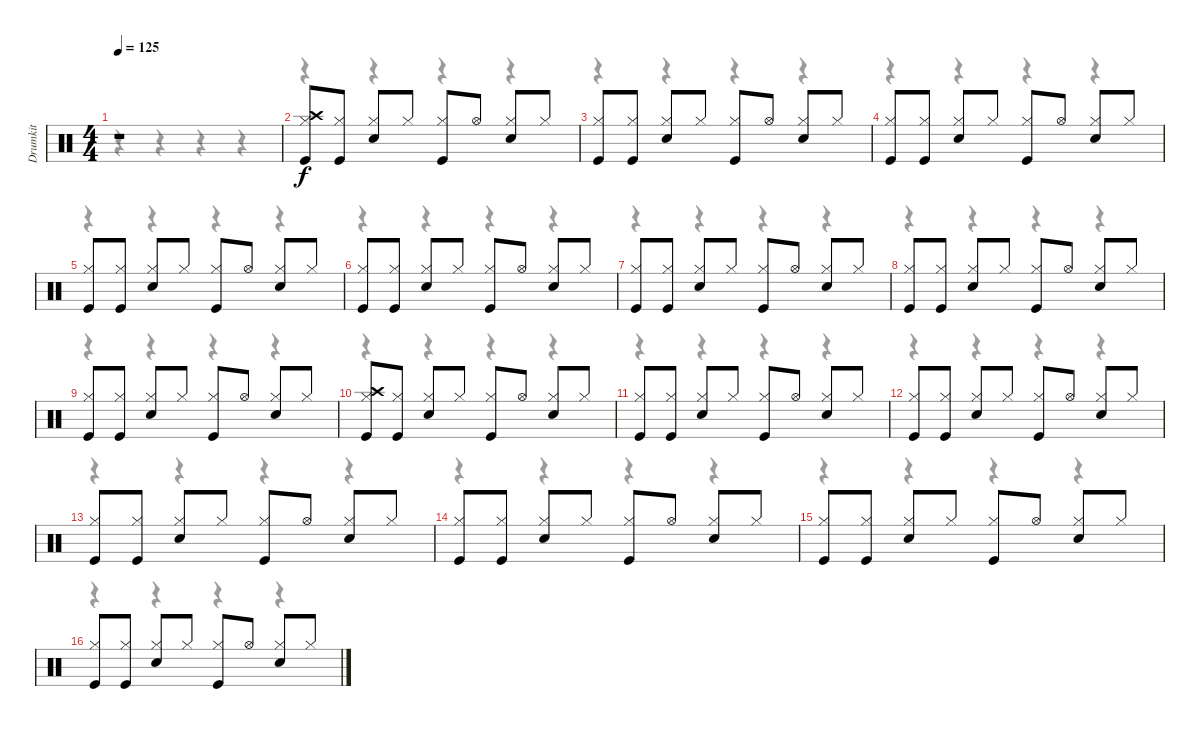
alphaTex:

\track ("Drumkit" "Drumkit") {instrument percussion}
\staff {score}
\articulation defaults
\voice
\ts (4 4)
\tempo 125
\clef neutral
\ks c
r.1{dy f} |
("Hi-Hat (closed)" "Kick (hit)" "Crash high (hit)").8 ("Hi-Hat (closed)" "Kick (hit)").8 ("Hi-Hat (closed)" "Snare (hit) 2").8 "Hi-Hat (closed)".8 ("Hi-Hat (closed)" "Kick (hit)").8 "Hi-Hat (open)".8 ("Hi-Hat (closed)" "Snare (hit) 2").8 "Hi-Hat (closed)".8 |
("Hi-Hat (closed)" "Kick (hit)").8 ("Hi-Hat (closed)" "Kick (hit)").8 ("Hi-Hat (closed)" "Snare (hit) 2").8 "Hi-Hat (closed)".8 ("Hi-Hat (closed)" "Kick (hit)").8 "Hi-Hat (open)".8 ("Hi-Hat (closed)" "Snare (hit) 2").8 "Hi-Hat (closed)".8 |
("Hi-Hat (closed)" "Kick (hit)").8 ("Hi-Hat (closed)" "Kick (hit)").8 ("Hi-Hat (closed)" "Snare (hit) 2").8 "Hi-Hat (closed)".8 ("Hi-Hat (closed)" "Kick (hit)").8 "Hi-Hat (open)".8 ("Hi-Hat (closed)" "Snare (hit) 2").8 "Hi-Hat (closed)".8 |
("Hi-Hat (closed)" "Kick (hit)").8 ("Hi-Hat (closed)" "Kick (hit)").8 ("Hi-Hat (closed)" "Snare (hit) 2").8 "Hi-Hat (closed)".8 ("Hi-Hat (closed)" "Kick (hit)").8 "Hi-Hat (open)".8 ("Hi-Hat (closed)" "Snare (hit) 2").8 "Hi-Hat (closed)".8 |
("Hi-Hat (closed)" "Kick (hit)").8 ("Hi-Hat (closed)" "Kick (hit)").8 ("Hi-Hat (closed)" "Snare (hit) 2").8 "Hi-Hat (closed)".8 ("Hi-Hat (closed)" "Kick (hit)").8 "Hi-Hat (open)".8 ("Hi-Hat (closed)" "Snare (hit) 2").8 "Hi-Hat (closed)".8 |
("Hi-Hat (closed)" "Kick (hit)").8 ("Hi-Hat (closed)" "Kick (hit)").8 ("Hi-Hat (closed)" "Snare (hit) 2").8 "Hi-Hat (closed)".8 ("Hi-Hat (closed)" "Kick (hit)").8 "Hi-Hat (open)".8 ("Hi-Hat (closed)" "Snare (hit) 2").8 "Hi-Hat (closed)".8 |
("Hi-Hat (closed)" "Kick (hit)").8 ("Hi-Hat (closed)" "Kick (hit)").8 ("Hi-Hat (closed)" "Snare (hit) 2").8 "Hi-Hat (closed)".8 ("Hi-Hat (closed)" "Kick (hit)").8 "Hi-Hat (open)".8 ("Hi-Hat (closed)" "Snare (hit) 2").8 "Hi-Hat (closed)".8 |
("Hi-Hat (closed)" "Kick (hit)").8 ("Hi-Hat (closed)" "Kick (hit)").8 ("Hi-Hat (closed)" "Snare (hit) 2").8 "Hi-Hat (closed)".8 ("Hi-Hat (closed)" "Kick (hit)").8 "Hi-Hat (open)".8 ("Hi-Hat (closed)" "Snare (hit) 2").8 "Hi-Hat (closed)".8 |
("Hi-Hat (closed)" "Kick (hit)" "Crash high (hit)").8 ("Hi-Hat (closed)" "Kick (hit)").8 ("Hi-Hat (closed)" "Snare (hit) 2").8 "Hi-Hat (closed)".8 ("Hi-Hat (closed)" "Kick (hit)").8 "Hi-Hat (open)".8 ("Hi-Hat (closed)" "Snare (hit) 2").8 "Hi-Hat (closed)".8 |
("Hi-Hat (closed)" "Kick (hit)").8 ("Hi-Hat (closed)" "Kick (hit)").8 ("Hi-Hat (closed)" "Snare (hit) 2").8 "Hi-Hat (closed)".8 ("Hi-Hat (closed)" "Kick (hit)").8 "Hi-Hat (open)".8 ("Hi-Hat (closed)" "Snare (hit) 2").8 "Hi-Hat (closed)".8 |
("Hi-Hat (closed)" "Kick (hit)").8 ("Hi-Hat (closed)" "Kick (hit)").8 ("Hi-Hat (closed)" "Snare (hit) 2").8 "Hi-Hat (closed)".8 ("Hi-Hat (closed)" "Kick (hit)").8 "Hi-Hat (open)".8 ("Hi-Hat (closed)" "Snare (hit) 2").8 "Hi-Hat (closed)".8 |
("Hi-Hat (closed)" "Kick (hit)").8 ("Hi-Hat (closed)" "Kick (hit)").8 ("Hi-Hat (closed)" "Snare (hit) 2").8 "Hi-Hat (closed)".8 ("Hi-Hat (closed)" "Kick (hit)").8 "Hi-Hat (open)".8 ("Hi-Hat (closed)" "Snare (hit) 2").8 "Hi-Hat (closed)".8 |
("Hi-Hat (closed)" "Kick (hit)").8 ("Hi-Hat (closed)" "Kick (hit)").8 ("Hi-Hat (closed)" "Snare (hit) 2").8 "Hi-Hat (closed)".8 ("Hi-Hat (closed)" "Kick (hit)").8 "Hi-Hat (open)".8 ("Hi-Hat (closed)" "Snare (hit) 2").8 "Hi-Hat (closed)".8 |
("Hi-Hat (closed)" "Kick (hit)").8 ("Hi-Hat (closed)" "Kick (hit)").8 ("Hi-Hat (closed)" "Snare (hit) 2").8 "Hi-Hat (closed)".8 ("Hi-Hat (closed)" "Kick (hit)").8 "Hi-Hat (open)".8 ("Hi-Hat (closed)" "Snare (hit) 2").8 "Hi-Hat (closed)".8 |
("Hi-Hat (closed)" "Kick (hit)").8 ("Hi-Hat (closed)" "Kick (hit)").8 ("Hi-Hat (closed)" "Snare (hit) 2").8 "Hi-Hat (closed)".8 ("Hi-Hat (closed)" "Kick (hit)").8 "Hi-Hat (open)".8 ("Hi-Hat (closed)" "Snare (hit) 2").8 "Hi-Hat (closed)".8
\voice
\clef neutral
\ottava regular
\simile none
\ks c
r.4{dy f} r.4 r.4 r.4 |
r.4 r.4 r.4 r.4 |
r.4 r.4 r.4 r.4 |
r.4 r.4 r.4 r.4 |
r.4 r.4 r.4 r.4 |
r.4 r.4 r.4 r.4 |
r.4 r.4 r.4 r.4 |
r.4 r.4 r.4 r.4 |
r.4 r.4 r.4 r.4 |
r.4 r.4 r.4 r.4 |
r.4 r.4 r.4 r.4 |
r.4 r.4 r.4 r.4 |
r.4 r.4 r.4 r.4 |
r.4 r.4 r.4 r.4 |
r.4 r.4 r.4 r.4 |
r.4 r.4 r.4 r.4
